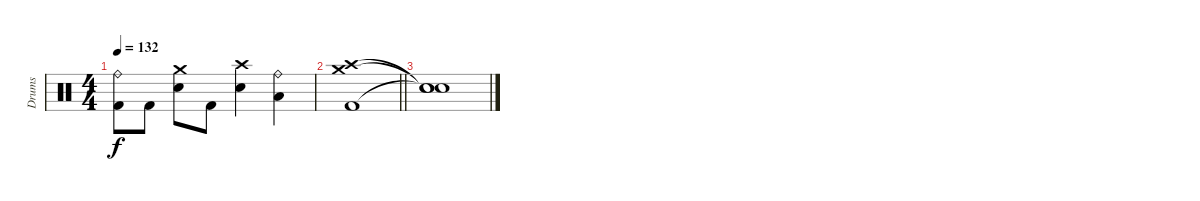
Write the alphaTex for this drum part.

\track ("Drums" "Drums") {instrument percussion}
\staff {score}
\articulation defaults
\ts (4 4)
\tempo 132
\clef neutral
\ks c
("Kick (hit) 2" "Ride (bell)").8{dy f} "Kick (hit) 2".8 ("Electric Snare (hit)" "Crash medium (hit)").8 "Kick (hit) 2".8 ("Electric Snare (hit)" "Crash high (hit)").4 ("Low Tom (hit)" "Ride (bell)").4 |
\barLineRight lightlight
("Kick (hit) 2" "Crash high (hit)" "Crash medium (hit)").1 |
("Snare (hit)"{t} "Snare (hit)"{t} "Snare (hit)"{t}).1
